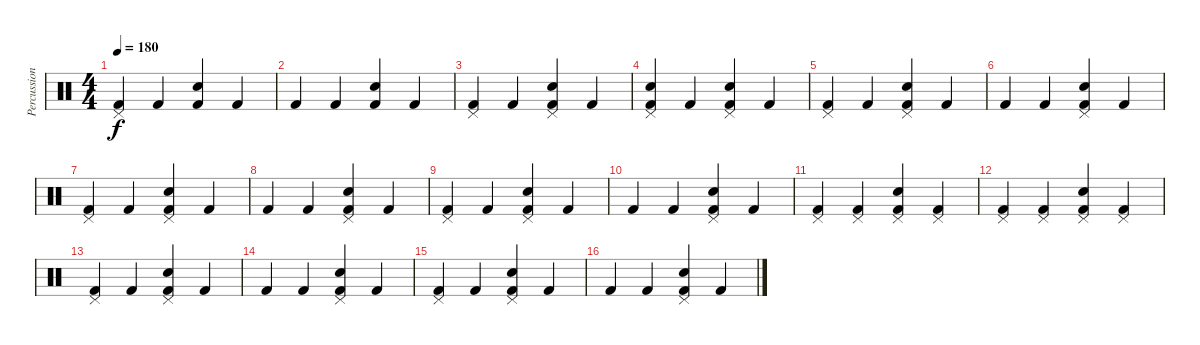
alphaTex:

\track ("Percussion" "Percussion") {instrument percussion}
\staff {score}
\articulation defaults
\ts (4 4)
\tempo 180
\clef neutral
\ks c
("Kick (hit) 2" "Pedal Hi-Hat (hit)").4{dy f} "Kick (hit) 2".4 ("Kick (hit) 2" "Snare (hit) 2").4 "Kick (hit) 2".4 |
"Kick (hit) 2".4 "Kick (hit) 2".4 ("Kick (hit) 2" "Snare (hit) 2").4 "Kick (hit) 2".4 |
("Kick (hit) 2" "Pedal Hi-Hat (hit)").4 "Kick (hit) 2".4 ("Kick (hit) 2" "Snare (hit) 2" "Pedal Hi-Hat (hit)").4 "Kick (hit) 2".4 |
("Kick (hit) 2" "Snare (hit) 2" "Pedal Hi-Hat (hit)").4 "Kick (hit) 2".4 ("Kick (hit) 2" "Snare (hit) 2" "Pedal Hi-Hat (hit)").4 "Kick (hit) 2".4 |
("Kick (hit) 2" "Pedal Hi-Hat (hit)").4 "Kick (hit) 2".4 ("Kick (hit) 2" "Snare (hit) 2" "Pedal Hi-Hat (hit)").4 "Kick (hit) 2".4 |
"Kick (hit) 2".4 "Kick (hit) 2".4 ("Kick (hit) 2" "Snare (hit) 2" "Pedal Hi-Hat (hit)").4 "Kick (hit) 2".4 |
("Kick (hit) 2" "Pedal Hi-Hat (hit)").4 "Kick (hit) 2".4 ("Kick (hit) 2" "Snare (hit) 2" "Pedal Hi-Hat (hit)").4 "Kick (hit) 2".4 |
"Kick (hit) 2".4 "Kick (hit) 2".4 ("Kick (hit) 2" "Snare (hit) 2" "Pedal Hi-Hat (hit)").4 "Kick (hit) 2".4 |
("Kick (hit) 2" "Pedal Hi-Hat (hit)").4 "Kick (hit) 2".4 ("Kick (hit) 2" "Snare (hit) 2" "Pedal Hi-Hat (hit)").4 "Kick (hit) 2".4 |
"Kick (hit) 2".4 "Kick (hit) 2".4 ("Kick (hit) 2" "Snare (hit) 2" "Pedal Hi-Hat (hit)").4 "Kick (hit) 2".4 |
("Kick (hit) 2" "Pedal Hi-Hat (hit)").4 ("Kick (hit) 2" "Pedal Hi-Hat (hit)").4 ("Kick (hit) 2" "Snare (hit) 2" "Pedal Hi-Hat (hit)").4 ("Kick (hit) 2" "Pedal Hi-Hat (hit)").4 |
("Kick (hit) 2" "Pedal Hi-Hat (hit)").4 ("Kick (hit) 2" "Pedal Hi-Hat (hit)").4 ("Kick (hit) 2" "Snare (hit) 2" "Pedal Hi-Hat (hit)").4 ("Kick (hit) 2" "Pedal Hi-Hat (hit)").4 |
("Kick (hit) 2" "Pedal Hi-Hat (hit)").4 "Kick (hit) 2".4 ("Kick (hit) 2" "Snare (hit) 2" "Pedal Hi-Hat (hit)").4 "Kick (hit) 2".4 |
"Kick (hit) 2".4 "Kick (hit) 2".4 ("Kick (hit) 2" "Snare (hit) 2" "Pedal Hi-Hat (hit)").4 "Kick (hit) 2".4 |
("Kick (hit) 2" "Pedal Hi-Hat (hit)").4 "Kick (hit) 2".4 ("Kick (hit) 2" "Snare (hit) 2" "Pedal Hi-Hat (hit)").4 "Kick (hit) 2".4 |
"Kick (hit) 2".4 "Kick (hit) 2".4 ("Kick (hit) 2" "Snare (hit) 2" "Pedal Hi-Hat (hit)").4 "Kick (hit) 2".4
